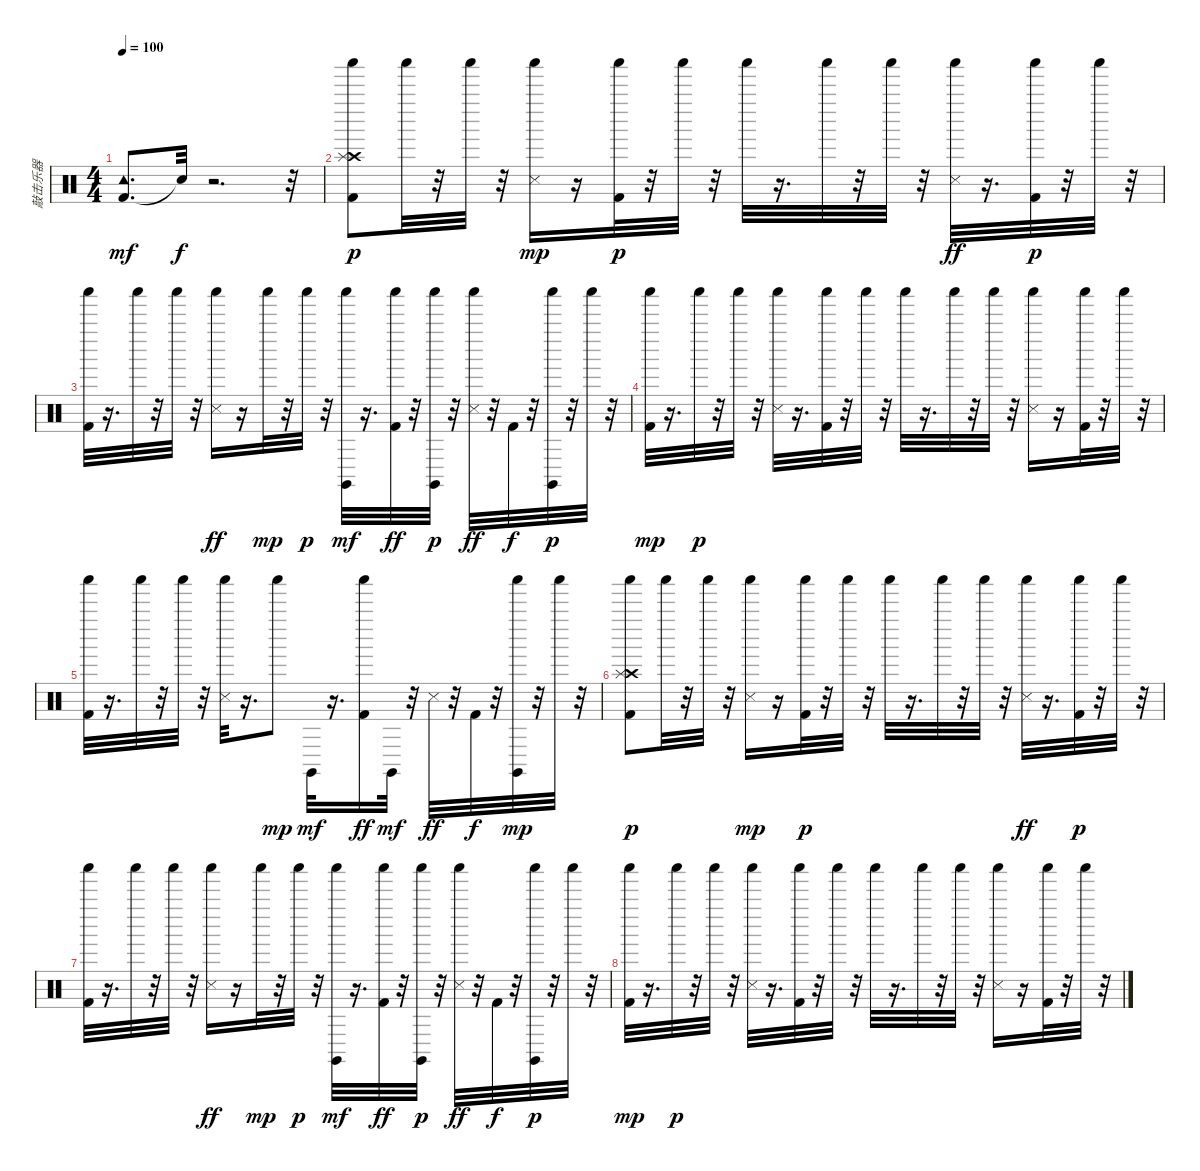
\track ("敲击乐器" "敲击乐器") {instrument percussion}
\staff {score}
\articulation defaults
\ts (4 4)
\tempo 100
\clef neutral
\ks c
("Kick (hit) 2" "Tambourine (hit)").8{d dy mf} "Snare (hit)"{t}.32{dy f} r.2{d} r.32 |
("Crash high (hit)" "Splash (hit)" "Shaker (hit)" "Kick (hit) 2").8{dy p} "Shaker (hit)".32 r.32 "Shaker (hit)".32 r.32 ("Shaker (hit)" "Snare (side stick) 3").16{dy mp} r.16 ("Kick (hit) 2" "Shaker (hit)").32{dy p} r.32 "Shaker (hit)".32 r.32 "Shaker (hit)".32 r.16{d} "Shaker (hit)".32 r.32 "Shaker (hit)".32 r.32 ("Shaker (hit)" "Snare (side stick) 3").32{dy ff} r.16{d} ("Kick (hit) 2" "Shaker (hit)").32{dy p} r.32 "Shaker (hit)".32 r.32 |
("Shaker (hit)" "Kick (hit) 2").32 r.16{d} "Shaker (hit)".32 r.32 "Shaker (hit)".32 r.32 ("Shaker (hit)" "Snare (side stick) 3").16{dy ff} r.16 "Shaker (hit)".32{dy mp} r.32 "Shaker (hit)".32{dy p} r.32 ("Shaker (hit)" "Claves (hit)").32{dy mf} r.16{d} ("Shaker (hit)" "Kick (hit) 2").32{dy ff} r.32 ("Claves (hit)" "Shaker (hit)").32{dy p} r.32 ("Shaker (hit)" "Snare (side stick) 3").32{dy ff} r.32 "Kick (hit) 2".32{dy f} r.32 ("Claves (hit)" "Shaker (hit)").32{dy p} r.32 "Shaker (hit)".32 r.32 |
("Kick (hit) 2" "Shaker (hit)").32{dy mp} r.16{d} "Shaker (hit)".32{dy p} r.32 "Shaker (hit)".32 r.32 ("Snare (side stick) 3" "Shaker (hit)").32 r.16{d} ("Kick (hit) 2" "Shaker (hit)").32 r.32 "Shaker (hit)".32 r.32 "Shaker (hit)".32 r.16{d} "Shaker (hit)".32 r.32 "Shaker (hit)".32 r.32 ("Snare (side stick) 3" "Shaker (hit)").16 r.16 ("Kick (hit) 2" "Shaker (hit)").32 r.32 "Shaker (hit)".32 r.32 |
("Shaker (hit)" "Kick (hit) 2").32 r.16{d} "Shaker (hit)".32 r.32 "Shaker (hit)".32 r.32 ("Snare (side stick) 3" "Shaker (hit)").32 r.16{d} "Shaker (hit)".8{dy mp} "Claves (hit)".32{dy mf} r.16{d} ("Shaker (hit)" "Kick (hit) 2").16{dy ff} "Claves (hit)".32{dy mf} r.32 "Snare (side stick) 3".32{dy ff} r.32 "Kick (hit) 2".32{dy f} r.32 ("Claves (hit)" "Shaker (hit)").32{dy mp} r.32 "Shaker (hit)".32 r.32 |
("Crash high (hit)" "Splash (hit)" "Shaker (hit)" "Kick (hit) 2").8{dy p} "Shaker (hit)".32 r.32 "Shaker (hit)".32 r.32 ("Shaker (hit)" "Snare (side stick) 3").16{dy mp} r.16 ("Kick (hit) 2" "Shaker (hit)").32{dy p} r.32 "Shaker (hit)".32 r.32 "Shaker (hit)".32 r.16{d} "Shaker (hit)".32 r.32 "Shaker (hit)".32 r.32 ("Shaker (hit)" "Snare (side stick) 3").32{dy ff} r.16{d} ("Kick (hit) 2" "Shaker (hit)").32{dy p} r.32 "Shaker (hit)".32 r.32 |
("Shaker (hit)" "Kick (hit) 2").32 r.16{d} "Shaker (hit)".32 r.32 "Shaker (hit)".32 r.32 ("Shaker (hit)" "Snare (side stick) 3").16{dy ff} r.16 "Shaker (hit)".32{dy mp} r.32 "Shaker (hit)".32{dy p} r.32 ("Shaker (hit)" "Claves (hit)").32{dy mf} r.16{d} ("Shaker (hit)" "Kick (hit) 2").32{dy ff} r.32 ("Claves (hit)" "Shaker (hit)").32{dy p} r.32 ("Shaker (hit)" "Snare (side stick) 3").32{dy ff} r.32 "Kick (hit) 2".32{dy f} r.32 ("Claves (hit)" "Shaker (hit)").32{dy p} r.32 "Shaker (hit)".32 r.32 |
("Kick (hit) 2" "Shaker (hit)").32{dy mp} r.16{d} "Shaker (hit)".32{dy p} r.32 "Shaker (hit)".32 r.32 ("Snare (side stick) 3" "Shaker (hit)").32 r.16{d} ("Kick (hit) 2" "Shaker (hit)").32 r.32 "Shaker (hit)".32 r.32 "Shaker (hit)".32 r.16{d} "Shaker (hit)".32 r.32 "Shaker (hit)".32 r.32 ("Snare (side stick) 3" "Shaker (hit)").16 r.16 ("Kick (hit) 2" "Shaker (hit)").32 r.32 "Shaker (hit)".32 r.32
